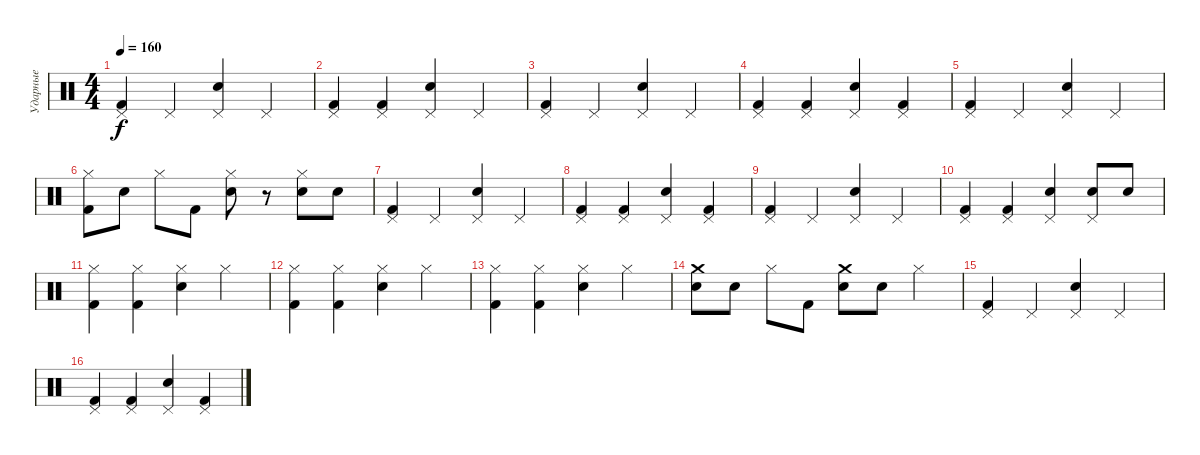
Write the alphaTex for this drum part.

\track ("Ударные" "Ударные") {instrument percussion}
\staff {score}
\articulation defaults
\ts (4 4)
\tempo 160
\clef neutral
\ks c
("Pedal Hi-Hat (hit)" "Kick (hit) 2").4{dy f} "Pedal Hi-Hat (hit)".4 ("Electric Snare (hit)" "Pedal Hi-Hat (hit)").4 "Pedal Hi-Hat (hit)".4 |
("Pedal Hi-Hat (hit)" "Kick (hit) 2").4 ("Pedal Hi-Hat (hit)" "Kick (hit) 2").4 ("Electric Snare (hit)" "Pedal Hi-Hat (hit)").4 "Pedal Hi-Hat (hit)".4 |
("Pedal Hi-Hat (hit)" "Kick (hit) 2").4 "Pedal Hi-Hat (hit)".4 ("Electric Snare (hit)" "Pedal Hi-Hat (hit)").4 "Pedal Hi-Hat (hit)".4 |
("Pedal Hi-Hat (hit)" "Kick (hit) 2").4 ("Pedal Hi-Hat (hit)" "Kick (hit) 2").4 ("Electric Snare (hit)" "Pedal Hi-Hat (hit)").4 ("Pedal Hi-Hat (hit)" "Kick (hit) 2").4 |
("Pedal Hi-Hat (hit)" "Kick (hit) 2").4 "Pedal Hi-Hat (hit)".4 ("Electric Snare (hit)" "Pedal Hi-Hat (hit)").4 "Pedal Hi-Hat (hit)".4 |
("Hi-Hat (closed)" "Kick (hit) 2").8 "Electric Snare (hit)".8 "Hi-Hat (closed)".8 "Kick (hit) 2".8 ("Electric Snare (hit)" "Hi-Hat (closed)").8 r.8 ("Electric Snare (hit)" "Hi-Hat (closed)").8 "Electric Snare (hit)".8 |
("Pedal Hi-Hat (hit)" "Kick (hit) 2").4 "Pedal Hi-Hat (hit)".4 ("Electric Snare (hit)" "Pedal Hi-Hat (hit)").4 "Pedal Hi-Hat (hit)".4 |
("Pedal Hi-Hat (hit)" "Kick (hit) 2").4 ("Pedal Hi-Hat (hit)" "Kick (hit) 2").4 ("Electric Snare (hit)" "Pedal Hi-Hat (hit)").4 ("Pedal Hi-Hat (hit)" "Kick (hit) 2").4 |
("Pedal Hi-Hat (hit)" "Kick (hit) 2").4 "Pedal Hi-Hat (hit)".4 ("Electric Snare (hit)" "Pedal Hi-Hat (hit)").4 "Pedal Hi-Hat (hit)".4 |
("Pedal Hi-Hat (hit)" "Kick (hit) 2").4 ("Pedal Hi-Hat (hit)" "Kick (hit) 2").4 ("Electric Snare (hit)" "Pedal Hi-Hat (hit)").4 ("Electric Snare (hit)" "Pedal Hi-Hat (hit)").8 "Electric Snare (hit)".8 |
("Hi-Hat (closed)" "Kick (hit) 2").4 ("Hi-Hat (closed)" "Kick (hit) 2").4 ("Electric Snare (hit)" "Hi-Hat (closed)").4 "Hi-Hat (closed)".4 |
("Hi-Hat (closed)" "Kick (hit) 2").4 ("Hi-Hat (closed)" "Kick (hit) 2").4 ("Electric Snare (hit)" "Hi-Hat (closed)").4 "Hi-Hat (closed)".4 |
("Hi-Hat (closed)" "Kick (hit) 2").4 ("Hi-Hat (closed)" "Kick (hit) 2").4 ("Electric Snare (hit)" "Hi-Hat (closed)").4 "Hi-Hat (closed)".4 |
("Electric Snare (hit)" "Crash medium (hit)").8 "Electric Snare (hit)".8 "Hi-Hat (closed)".8 "Kick (hit) 2".8 ("Electric Snare (hit)" "Crash medium (hit)").8 "Electric Snare (hit)".8 "Hi-Hat (closed)".4 |
("Pedal Hi-Hat (hit)" "Kick (hit) 2").4 "Pedal Hi-Hat (hit)".4 ("Electric Snare (hit)" "Pedal Hi-Hat (hit)").4 "Pedal Hi-Hat (hit)".4 |
("Pedal Hi-Hat (hit)" "Kick (hit) 2").4 ("Pedal Hi-Hat (hit)" "Kick (hit) 2").4 ("Electric Snare (hit)" "Pedal Hi-Hat (hit)").4 ("Pedal Hi-Hat (hit)" "Kick (hit) 2").4
